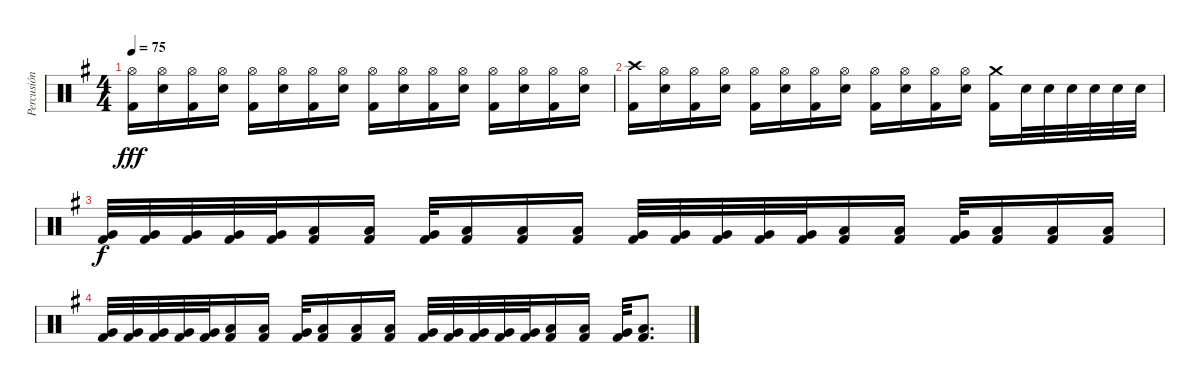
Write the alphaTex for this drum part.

\track ("Percusión" "Percusión") {instrument percussion}
\staff {score}
\articulation defaults
\ts (4 4)
\tempo 75
\clef neutral
\ks g
("Hi-Hat (open)" "Kick (hit) 2").16{dy fff} ("Hi-Hat (open)" "Electric Snare (hit)").16 ("Hi-Hat (open)" "Kick (hit) 2").16 ("Hi-Hat (open)" "Electric Snare (hit)").16 ("Hi-Hat (open)" "Kick (hit) 2").16 ("Hi-Hat (open)" "Electric Snare (hit)").16 ("Hi-Hat (open)" "Kick (hit) 2").16 ("Hi-Hat (open)" "Electric Snare (hit)").16 ("Hi-Hat (open)" "Kick (hit) 2").16 ("Hi-Hat (open)" "Electric Snare (hit)").16 ("Hi-Hat (open)" "Kick (hit) 2").16 ("Hi-Hat (open)" "Electric Snare (hit)").16 ("Hi-Hat (open)" "Kick (hit) 2").16 ("Hi-Hat (open)" "Electric Snare (hit)").16 ("Hi-Hat (open)" "Kick (hit) 2").16 ("Hi-Hat (open)" "Electric Snare (hit)").16 |
("Crash high (hit)" "Kick (hit) 2").16 ("Hi-Hat (open)" "Electric Snare (hit)").16 ("Hi-Hat (open)" "Kick (hit) 2").16 ("Hi-Hat (open)" "Electric Snare (hit)").16 ("Hi-Hat (open)" "Kick (hit) 2").16 ("Hi-Hat (open)" "Electric Snare (hit)").16 ("Hi-Hat (open)" "Kick (hit) 2").16 ("Hi-Hat (open)" "Electric Snare (hit)").16 ("Hi-Hat (open)" "Kick (hit) 2").16 ("Hi-Hat (open)" "Electric Snare (hit)").16 ("Hi-Hat (open)" "Kick (hit) 2").16 ("Hi-Hat (open)" "Electric Snare (hit)").16 ("Crash medium (hit)" "Kick (hit) 2").16 "Electric Snare (hit)".32 "Electric Snare (hit)".32 "Electric Snare (hit)".32 "Electric Snare (hit)".32 "Electric Snare (hit)".32 "Electric Snare (hit)".32 |
("Very Low Tom (hit)" "Kick (hit) 2").32{dy f} ("Very Low Tom (hit)" "Kick (hit) 2").32 ("Very Low Tom (hit)" "Kick (hit) 2").32 ("Very Low Tom (hit)" "Kick (hit) 2").32 ("Very Low Tom (hit)" "Kick (hit) 2").32 ("Low Floor Tom (hit)" "Kick (hit) 2").16 ("Low Floor Tom (hit)" "Kick (hit) 2").16 ("Very Low Tom (hit)" "Kick (hit) 2").32 ("Low Floor Tom (hit)" "Kick (hit) 2").16 ("Low Floor Tom (hit)" "Kick (hit) 2").16 ("Low Floor Tom (hit)" "Kick (hit) 2").16 ("Very Low Tom (hit)" "Kick (hit) 2").32 ("Very Low Tom (hit)" "Kick (hit) 2").32 ("Very Low Tom (hit)" "Kick (hit) 2").32 ("Very Low Tom (hit)" "Kick (hit) 2").32 ("Very Low Tom (hit)" "Kick (hit) 2").32 ("Low Floor Tom (hit)" "Kick (hit) 2").16 ("Low Floor Tom (hit)" "Kick (hit) 2").16 ("Very Low Tom (hit)" "Kick (hit) 2").32 ("Low Floor Tom (hit)" "Kick (hit) 2").16 ("Low Floor Tom (hit)" "Kick (hit) 2").16 ("Low Floor Tom (hit)" "Kick (hit) 2").16 |
("Very Low Tom (hit)" "Kick (hit) 2").32 ("Very Low Tom (hit)" "Kick (hit) 2").32 ("Very Low Tom (hit)" "Kick (hit) 2").32 ("Very Low Tom (hit)" "Kick (hit) 2").32 ("Very Low Tom (hit)" "Kick (hit) 2").32 ("Low Floor Tom (hit)" "Kick (hit) 2").16 ("Low Floor Tom (hit)" "Kick (hit) 2").16 ("Very Low Tom (hit)" "Kick (hit) 2").32 ("Low Floor Tom (hit)" "Kick (hit) 2").16 ("Low Floor Tom (hit)" "Kick (hit) 2").16 ("Low Floor Tom (hit)" "Kick (hit) 2").16 ("Very Low Tom (hit)" "Kick (hit) 2").32 ("Very Low Tom (hit)" "Kick (hit) 2").32 ("Very Low Tom (hit)" "Kick (hit) 2").32 ("Very Low Tom (hit)" "Kick (hit) 2").32 ("Very Low Tom (hit)" "Kick (hit) 2").32 ("Low Floor Tom (hit)" "Kick (hit) 2").16 ("Low Floor Tom (hit)" "Kick (hit) 2").16 ("Very Low Tom (hit)" "Kick (hit) 2").32 ("Low Floor Tom (hit)" "Kick (hit) 2").8{d}
